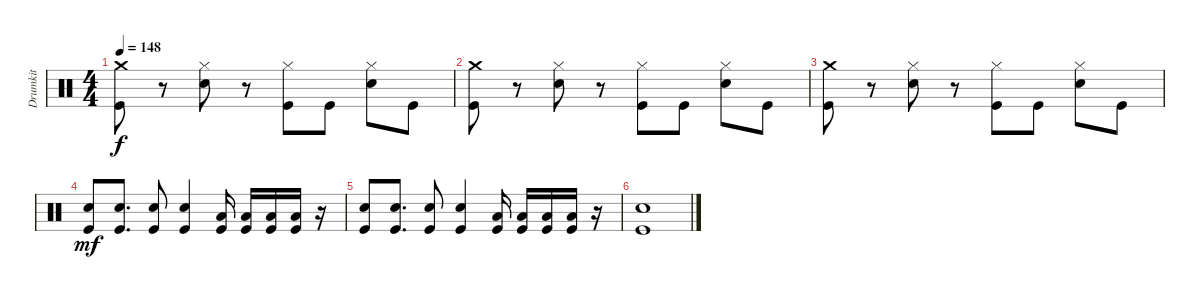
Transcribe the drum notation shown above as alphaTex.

\track ("Drumkit" "Drumkit") {instrument percussion}
\staff {score}
\articulation defaults
\ts (4 4)
\tempo 148
\clef neutral
\ks c
("Crash medium (hit)" "Kick (hit)").8{dy f} r.8 ("Hi-Hat (closed)" "Snare (hit) 2").8 r.8 ("Hi-Hat (closed)" "Kick (hit)").8 "Kick (hit)".8 ("Hi-Hat (closed)" "Snare (hit) 2").8 "Kick (hit)".8 |
("Crash medium (hit)" "Kick (hit)").8 r.8 ("Hi-Hat (closed)" "Snare (hit) 2").8 r.8 ("Hi-Hat (closed)" "Kick (hit)").8 "Kick (hit)".8 ("Hi-Hat (closed)" "Snare (hit) 2").8 "Kick (hit)".8 |
("Crash medium (hit)" "Kick (hit)").8 r.8 ("Hi-Hat (closed)" "Snare (hit) 2").8 r.8 ("Hi-Hat (closed)" "Kick (hit)").8 "Kick (hit)".8 ("Hi-Hat (closed)" "Snare (hit) 2").8 "Kick (hit)".8 |
("Snare (hit) 2" "Kick (hit)").8{dy mf} ("Snare (hit) 2" "Kick (hit)").8{d} ("Snare (hit) 2" "Kick (hit)").8 ("Snare (hit) 2" "Kick (hit)").4 ("Kick (hit)" "Low Tom (hit)").16 ("Kick (hit)" "Low Tom (hit)").16 ("Kick (hit)" "Low Tom (hit)").16 ("Kick (hit)" "Low Tom (hit)").16 r.16 |
("Snare (hit) 2" "Kick (hit)").8 ("Snare (hit) 2" "Kick (hit)").8{d} ("Snare (hit) 2" "Kick (hit)").8 ("Snare (hit) 2" "Kick (hit)").4 ("Kick (hit)" "Low Tom (hit)").16 ("Kick (hit)" "Low Tom (hit)").16 ("Kick (hit)" "Low Tom (hit)").16 ("Kick (hit)" "Low Tom (hit)").16 r.16 |
("Snare (hit) 2" "Kick (hit)").1
